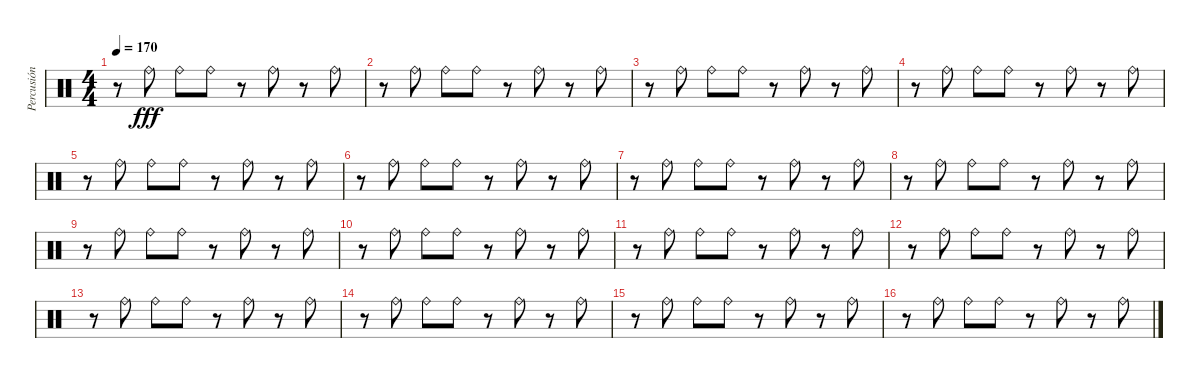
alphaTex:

\track ("Percusión" "Percusión") {instrument percussion}
\staff {score}
\articulation defaults
\ts (4 4)
\tempo 170
\clef neutral
\ks c
r.8{dy fff} "Ride (bell)".8 "Ride (bell)".8 "Ride (bell)".8 r.8 "Ride (bell)".8 r.8 "Ride (bell)".8 |
r.8 "Ride (bell)".8 "Ride (bell)".8 "Ride (bell)".8 r.8 "Ride (bell)".8 r.8 "Ride (bell)".8 |
r.8 "Ride (bell)".8 "Ride (bell)".8 "Ride (bell)".8 r.8 "Ride (bell)".8 r.8 "Ride (bell)".8 |
r.8 "Ride (bell)".8 "Ride (bell)".8 "Ride (bell)".8 r.8 "Ride (bell)".8 r.8 "Ride (bell)".8 |
r.8 "Ride (bell)".8 "Ride (bell)".8 "Ride (bell)".8 r.8 "Ride (bell)".8 r.8 "Ride (bell)".8 |
r.8 "Ride (bell)".8 "Ride (bell)".8 "Ride (bell)".8 r.8 "Ride (bell)".8 r.8 "Ride (bell)".8 |
r.8 "Ride (bell)".8 "Ride (bell)".8 "Ride (bell)".8 r.8 "Ride (bell)".8 r.8 "Ride (bell)".8 |
r.8 "Ride (bell)".8 "Ride (bell)".8 "Ride (bell)".8 r.8 "Ride (bell)".8 r.8 "Ride (bell)".8 |
r.8 "Ride (bell)".8 "Ride (bell)".8 "Ride (bell)".8 r.8 "Ride (bell)".8 r.8 "Ride (bell)".8 |
r.8 "Ride (bell)".8 "Ride (bell)".8 "Ride (bell)".8 r.8 "Ride (bell)".8 r.8 "Ride (bell)".8 |
r.8 "Ride (bell)".8 "Ride (bell)".8 "Ride (bell)".8 r.8 "Ride (bell)".8 r.8 "Ride (bell)".8 |
r.8 "Ride (bell)".8 "Ride (bell)".8 "Ride (bell)".8 r.8 "Ride (bell)".8 r.8 "Ride (bell)".8 |
r.8 "Ride (bell)".8 "Ride (bell)".8 "Ride (bell)".8 r.8 "Ride (bell)".8 r.8 "Ride (bell)".8 |
r.8 "Ride (bell)".8 "Ride (bell)".8 "Ride (bell)".8 r.8 "Ride (bell)".8 r.8 "Ride (bell)".8 |
r.8 "Ride (bell)".8 "Ride (bell)".8 "Ride (bell)".8 r.8 "Ride (bell)".8 r.8 "Ride (bell)".8 |
r.8 "Ride (bell)".8 "Ride (bell)".8 "Ride (bell)".8 r.8 "Ride (bell)".8 r.8 "Ride (bell)".8
